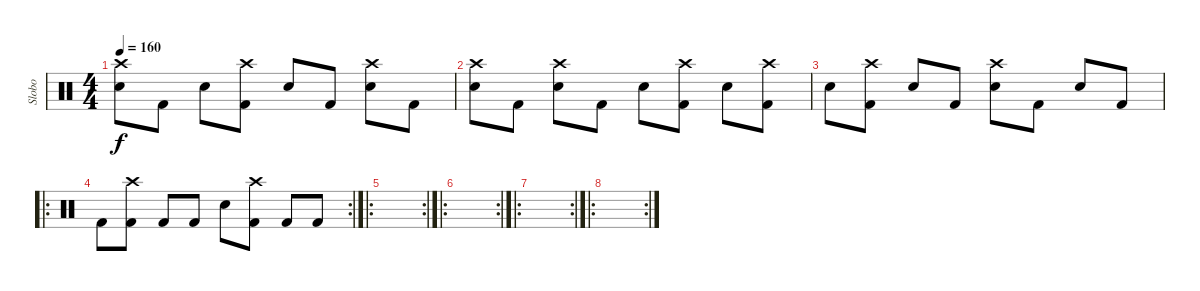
\track ("Slobo" "Slobo") {instrument percussion}
\staff {score}
\articulation defaults
\ts (4 4)
\tempo 160
\clef neutral
\ks c
("Crash high (hit)" "Snare (hit) 2").8{dy f} "Kick (hit) 2".8 "Snare (hit) 2".8 ("Crash high (hit)" "Kick (hit) 2").8 "Snare (hit) 2".8 "Kick (hit) 2".8 ("Crash high (hit)" "Snare (hit) 2").8 "Kick (hit) 2".8 |
("Crash high (hit)" "Snare (hit) 2").8 "Kick (hit) 2".8 ("Crash high (hit)" "Snare (hit) 2").8 "Kick (hit) 2".8 "Snare (hit) 2".8 ("Crash high (hit)" "Kick (hit) 2").8 "Snare (hit) 2".8 ("Crash high (hit)" "Kick (hit) 2").8 |
"Snare (hit) 2".8 ("Crash high (hit)" "Kick (hit) 2").8 "Snare (hit) 2".8 "Kick (hit) 2".8 ("Crash high (hit)" "Snare (hit) 2").8 "Kick (hit) 2".8 "Snare (hit) 2".8 "Kick (hit) 2".8 |
\ro
\rc 2 "Kick (hit) 2".8
("Crash high (hit)" "Kick (hit) 2").8 "Kick (hit) 2".8 "Kick (hit) 2".8 "Snare (hit) 2".8 ("Crash high (hit)" "Kick (hit) 2").8 "Kick (hit) 2".8 "Kick (hit) 2".8 |
\ro
\rc 2
|
\ro
\rc 2
|
\ro
\rc 2
|
\ro
\rc 2
